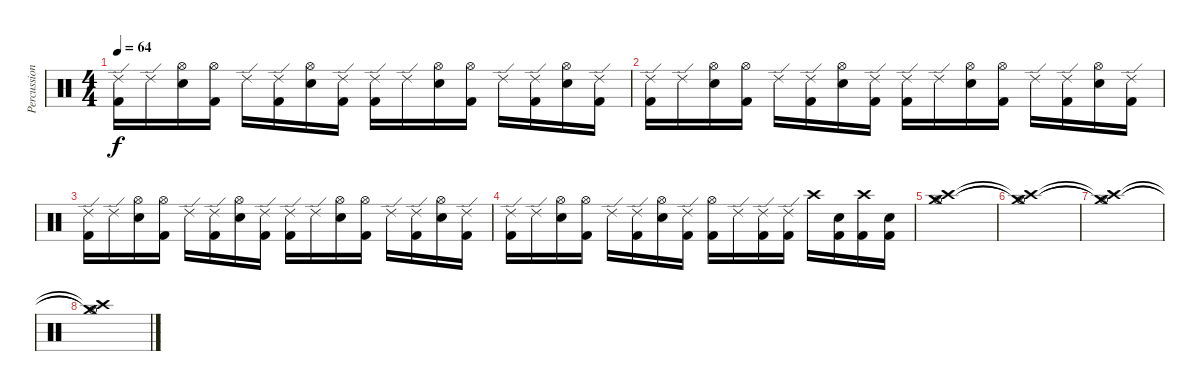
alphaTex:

\track ("Percussion" "Percussion") {instrument percussion}
\staff {score}
\articulation defaults
\ts (4 4)
\tempo 64
\clef neutral
\ks c
("Ride (edge) 2" "Kick (hit) 2").16{dy f} "Ride (edge) 2".16 ("Hi-Hat (open)" "Electric Snare (hit)").16 ("Hi-Hat (open)" "Kick (hit) 2").16 "Ride (edge) 2".16 ("Ride (edge) 2" "Kick (hit) 2").16 ("Hi-Hat (open)" "Electric Snare (hit)").16 ("Ride (edge) 2" "Kick (hit) 2").16 ("Ride (edge) 2" "Kick (hit) 2").16 "Ride (edge) 2".16 ("Hi-Hat (open)" "Electric Snare (hit)").16 ("Hi-Hat (open)" "Kick (hit) 2").16 "Ride (edge) 2".16 ("Ride (edge) 2" "Kick (hit) 2").16 ("Hi-Hat (open)" "Electric Snare (hit)").16 ("Ride (edge) 2" "Kick (hit) 2").16 |
("Ride (edge) 2" "Kick (hit) 2").16 "Ride (edge) 2".16 ("Hi-Hat (open)" "Electric Snare (hit)").16 ("Hi-Hat (open)" "Kick (hit) 2").16 "Ride (edge) 2".16 ("Ride (edge) 2" "Kick (hit) 2").16 ("Hi-Hat (open)" "Electric Snare (hit)").16 ("Ride (edge) 2" "Kick (hit) 2").16 ("Ride (edge) 2" "Kick (hit) 2").16 "Ride (edge) 2".16 ("Hi-Hat (open)" "Electric Snare (hit)").16 ("Hi-Hat (open)" "Kick (hit) 2").16 "Ride (edge) 2".16 ("Ride (edge) 2" "Kick (hit) 2").16 ("Hi-Hat (open)" "Electric Snare (hit)").16 ("Ride (edge) 2" "Kick (hit) 2").16 |
("Ride (edge) 2" "Kick (hit) 2").16 "Ride (edge) 2".16 ("Hi-Hat (open)" "Electric Snare (hit)").16 ("Hi-Hat (open)" "Kick (hit) 2").16 "Ride (edge) 2".16 ("Ride (edge) 2" "Kick (hit) 2").16 ("Hi-Hat (open)" "Electric Snare (hit)").16 ("Ride (edge) 2" "Kick (hit) 2").16 ("Ride (edge) 2" "Kick (hit) 2").16 "Ride (edge) 2".16 ("Hi-Hat (open)" "Electric Snare (hit)").16 ("Hi-Hat (open)" "Kick (hit) 2").16 "Ride (edge) 2".16 ("Ride (edge) 2" "Kick (hit) 2").16 ("Hi-Hat (open)" "Electric Snare (hit)").16 ("Ride (edge) 2" "Kick (hit) 2").16 |
("Ride (edge) 2" "Kick (hit) 2").16 "Ride (edge) 2".16 ("Hi-Hat (open)" "Electric Snare (hit)").16 ("Hi-Hat (open)" "Kick (hit) 2").16 "Ride (edge) 2".16 ("Ride (edge) 2" "Kick (hit) 2").16 ("Hi-Hat (open)" "Electric Snare (hit)").16 ("Ride (edge) 2" "Kick (hit) 2").16 ("Hi-Hat (open)" "Kick (hit) 2").16 "Ride (edge) 2".16 ("Ride (edge) 2" "Kick (hit) 2").16 ("Ride (edge) 2" "Kick (hit) 2").16 "Crash high (hit)".16 ("Kick (hit) 2" "Electric Snare (hit)").16 ("Crash high (hit)" "Kick (hit) 2").16 ("Kick (hit) 2" "Electric Snare (hit)").16 |
("Crash high (hit)" "Hi-Hat (open)" "Crash medium (hit)").1 |
("Crash high (hit)"{t} "Hi-Hat (open)"{t} "Crash medium (hit)"{t}).1 |
("Crash high (hit)"{t} "Hi-Hat (open)"{t} "Crash medium (hit)"{t}).1 |
("Crash high (hit)"{t} "Hi-Hat (open)"{t} "Crash medium (hit)"{t}).1
